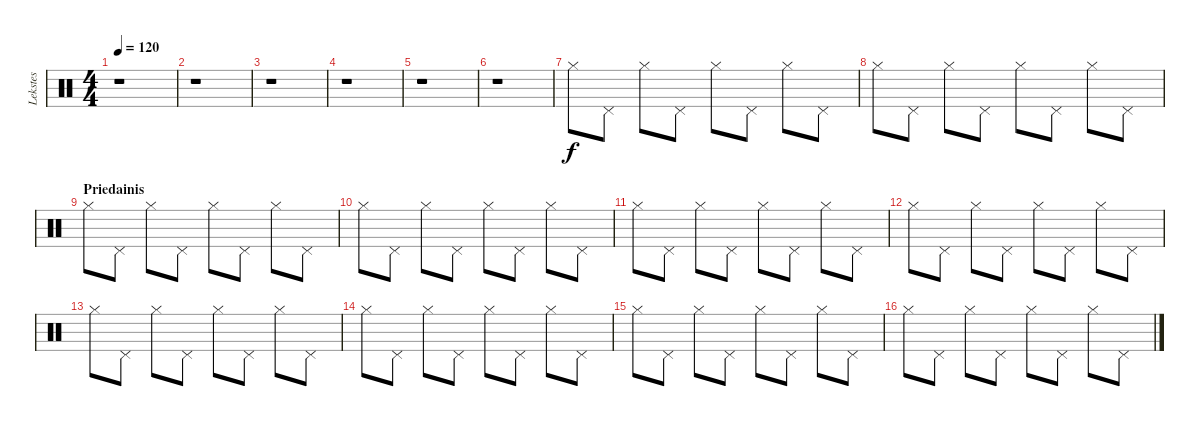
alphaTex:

\track ("Lekstes" "Lekstes") {instrument percussion}
\staff {score}
\articulation defaults
\ts (4 4)
\tempo 120
\clef neutral
\ks c
r.1{dy f} |
r.1 |
r.1 |
r.1 |
r.1 |
r.1 |
"Hi-Hat (closed)".8 "Pedal Hi-Hat (hit)".8 "Hi-Hat (closed)".8 "Pedal Hi-Hat (hit)".8 "Hi-Hat (closed)".8 "Pedal Hi-Hat (hit)".8 "Hi-Hat (closed)".8 "Pedal Hi-Hat (hit)".8 |
"Hi-Hat (closed)".8 "Pedal Hi-Hat (hit)".8 "Hi-Hat (closed)".8 "Pedal Hi-Hat (hit)".8 "Hi-Hat (closed)".8 "Pedal Hi-Hat (hit)".8 "Hi-Hat (closed)".8 "Pedal Hi-Hat (hit)".8 |
\section ("" "Priedainis")
"Hi-Hat (closed)".8 "Pedal Hi-Hat (hit)".8 "Hi-Hat (closed)".8 "Pedal Hi-Hat (hit)".8 "Hi-Hat (closed)".8 "Pedal Hi-Hat (hit)".8 "Hi-Hat (closed)".8 "Pedal Hi-Hat (hit)".8 |
"Hi-Hat (closed)".8 "Pedal Hi-Hat (hit)".8 "Hi-Hat (closed)".8 "Pedal Hi-Hat (hit)".8 "Hi-Hat (closed)".8 "Pedal Hi-Hat (hit)".8 "Hi-Hat (closed)".8 "Pedal Hi-Hat (hit)".8 |
"Hi-Hat (closed)".8 "Pedal Hi-Hat (hit)".8 "Hi-Hat (closed)".8 "Pedal Hi-Hat (hit)".8 "Hi-Hat (closed)".8 "Pedal Hi-Hat (hit)".8 "Hi-Hat (closed)".8 "Pedal Hi-Hat (hit)".8 |
"Hi-Hat (closed)".8 "Pedal Hi-Hat (hit)".8 "Hi-Hat (closed)".8 "Pedal Hi-Hat (hit)".8 "Hi-Hat (closed)".8 "Pedal Hi-Hat (hit)".8 "Hi-Hat (closed)".8 "Pedal Hi-Hat (hit)".8 |
"Hi-Hat (closed)".8 "Pedal Hi-Hat (hit)".8 "Hi-Hat (closed)".8 "Pedal Hi-Hat (hit)".8 "Hi-Hat (closed)".8 "Pedal Hi-Hat (hit)".8 "Hi-Hat (closed)".8 "Pedal Hi-Hat (hit)".8 |
"Hi-Hat (closed)".8 "Pedal Hi-Hat (hit)".8 "Hi-Hat (closed)".8 "Pedal Hi-Hat (hit)".8 "Hi-Hat (closed)".8 "Pedal Hi-Hat (hit)".8 "Hi-Hat (closed)".8 "Pedal Hi-Hat (hit)".8 |
"Hi-Hat (closed)".8 "Pedal Hi-Hat (hit)".8 "Hi-Hat (closed)".8 "Pedal Hi-Hat (hit)".8 "Hi-Hat (closed)".8 "Pedal Hi-Hat (hit)".8 "Hi-Hat (closed)".8 "Pedal Hi-Hat (hit)".8 |
"Hi-Hat (closed)".8 "Pedal Hi-Hat (hit)".8 "Hi-Hat (closed)".8 "Pedal Hi-Hat (hit)".8 "Hi-Hat (closed)".8 "Pedal Hi-Hat (hit)".8 "Hi-Hat (closed)".8 "Pedal Hi-Hat (hit)".8
